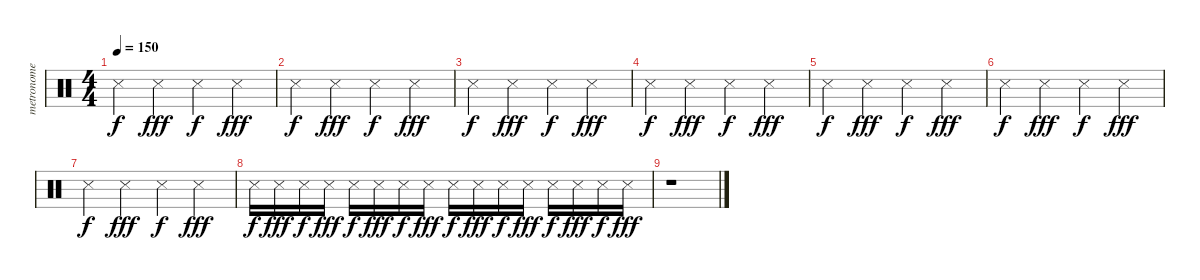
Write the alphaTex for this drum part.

\track ("metronome" "metronome") {instrument percussion}
\staff {score}
\articulation defaults
\ts (4 4)
\tempo 150
\clef neutral
\ks c "Snare (side stick) 3".4{dy f} "Snare (side stick) 3".4{dy fff} "Snare (side stick) 3".4{dy f} "Snare (side stick) 3".4{dy fff}
|
"Snare (side stick) 3".4{dy f} "Snare (side stick) 3".4{dy fff} "Snare (side stick) 3".4{dy f} "Snare (side stick) 3".4{dy fff} |
"Snare (side stick) 3".4{dy f} "Snare (side stick) 3".4{dy fff} "Snare (side stick) 3".4{dy f} "Snare (side stick) 3".4{dy fff} |
"Snare (side stick) 3".4{dy f} "Snare (side stick) 3".4{dy fff} "Snare (side stick) 3".4{dy f} "Snare (side stick) 3".4{dy fff} |
"Snare (side stick) 3".4{dy f} "Snare (side stick) 3".4{dy fff} "Snare (side stick) 3".4{dy f} "Snare (side stick) 3".4{dy fff} |
"Snare (side stick) 3".4{dy f} "Snare (side stick) 3".4{dy fff} "Snare (side stick) 3".4{dy f} "Snare (side stick) 3".4{dy fff} |
"Snare (side stick) 3".4{dy f} "Snare (side stick) 3".4{dy fff} "Snare (side stick) 3".4{dy f} "Snare (side stick) 3".4{dy fff} |
"Snare (side stick) 3".16{dy f} "Snare (side stick) 3".16{dy fff} "Snare (side stick) 3".16{dy f} "Snare (side stick) 3".16{dy fff} "Snare (side stick) 3".16{dy f} "Snare (side stick) 3".16{dy fff} "Snare (side stick) 3".16{dy f} "Snare (side stick) 3".16{dy fff} "Snare (side stick) 3".16{dy f} "Snare (side stick) 3".16{dy fff} "Snare (side stick) 3".16{dy f} "Snare (side stick) 3".16{dy fff} "Snare (side stick) 3".16{dy f} "Snare (side stick) 3".16{dy fff} "Snare (side stick) 3".16{dy f} "Snare (side stick) 3".16{dy fff} |
r.1
